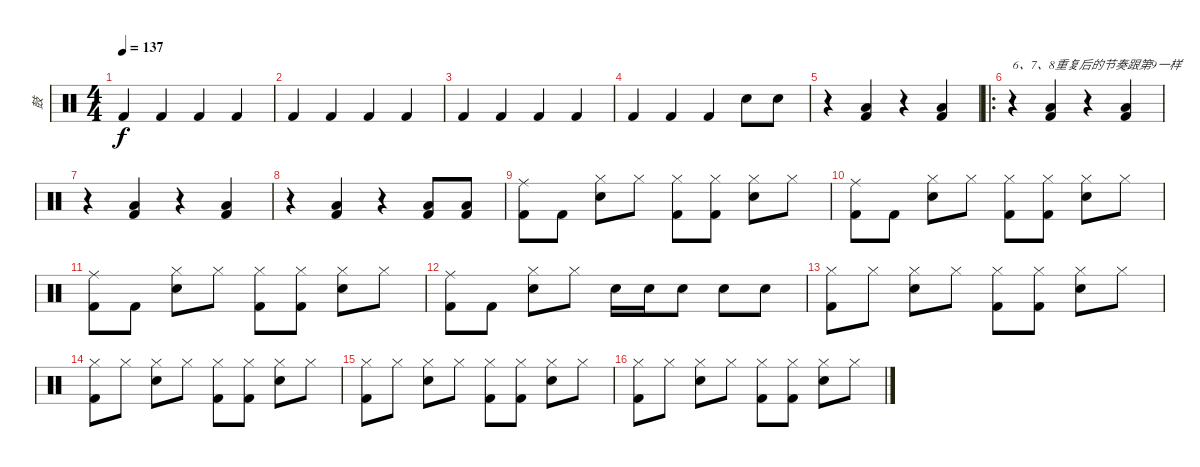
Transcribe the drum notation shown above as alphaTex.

\track ("鼓" "鼓") {instrument percussion}
\staff {score}
\articulation defaults
\ts (4 4)
\tempo 137
\clef neutral
\ks c "Kick (hit) 2".4{dy f} "Kick (hit) 2".4 "Kick (hit) 2".4 "Kick (hit) 2".4
|
"Kick (hit) 2".4 "Kick (hit) 2".4 "Kick (hit) 2".4 "Kick (hit) 2".4 |
"Kick (hit) 2".4 "Kick (hit) 2".4 "Kick (hit) 2".4 "Kick (hit) 2".4 |
"Kick (hit) 2".4 "Kick (hit) 2".4 "Kick (hit) 2".4 "Snare (hit) 2".8 "Snare (hit) 2".8 |
r.4 ("Low Tom (hit)" "Kick (hit) 2").4 r.4 ("Low Tom (hit)" "Kick (hit) 2").4 |
\ro
r.4{txt "6、7、8重复后的节奏跟第9一样"} ("Low Tom (hit)" "Kick (hit) 2").4 r.4 ("Low Tom (hit)" "Kick (hit) 2").4 |
r.4 ("Low Tom (hit)" "Kick (hit) 2").4 r.4 ("Low Tom (hit)" "Kick (hit) 2").4 |
r.4 ("Low Tom (hit)" "Kick (hit) 2").4 r.4 ("Low Tom (hit)" "Kick (hit) 2").8 ("Low Tom (hit)" "Kick (hit) 2").8 |
("Ride (middle)" "Kick (hit) 2").8 "Kick (hit) 2".8 ("Hi-Hat (closed)" "Snare (hit) 2").8 "Hi-Hat (closed)".8 ("Hi-Hat (closed)" "Kick (hit) 2").8 ("Hi-Hat (closed)" "Kick (hit) 2").8 ("Hi-Hat (closed)" "Snare (hit) 2").8 "Hi-Hat (closed)".8 |
("Ride (middle)" "Kick (hit) 2").8 "Kick (hit) 2".8 ("Hi-Hat (closed)" "Snare (hit) 2").8 "Hi-Hat (closed)".8 ("Hi-Hat (closed)" "Kick (hit) 2").8 ("Hi-Hat (closed)" "Kick (hit) 2").8 ("Hi-Hat (closed)" "Snare (hit) 2").8 "Hi-Hat (closed)".8 |
("Ride (middle)" "Kick (hit) 2").8 "Kick (hit) 2".8 ("Hi-Hat (closed)" "Snare (hit) 2").8 "Hi-Hat (closed)".8 ("Hi-Hat (closed)" "Kick (hit) 2").8 ("Hi-Hat (closed)" "Kick (hit) 2").8 ("Hi-Hat (closed)" "Snare (hit) 2").8 "Hi-Hat (closed)".8 |
("Ride (middle)" "Kick (hit) 2").8 "Kick (hit) 2".8 ("Hi-Hat (closed)" "Snare (hit) 2").8 "Hi-Hat (closed)".8 "Snare (hit) 2".16 "Snare (hit) 2".16 "Snare (hit) 2".8 "Snare (hit) 2".8 "Snare (hit) 2".8 |
("Hi-Hat (closed)" "Kick (hit) 2").8 "Hi-Hat (closed)".8 ("Hi-Hat (closed)" "Snare (hit) 2").8 "Hi-Hat (closed)".8 ("Hi-Hat (closed)" "Kick (hit) 2").8 ("Hi-Hat (closed)" "Kick (hit) 2").8 ("Hi-Hat (closed)" "Snare (hit) 2").8 "Hi-Hat (closed)".8 |
("Hi-Hat (closed)" "Kick (hit) 2").8 "Hi-Hat (closed)".8 ("Hi-Hat (closed)" "Snare (hit) 2").8 "Hi-Hat (closed)".8 ("Hi-Hat (closed)" "Kick (hit) 2").8 ("Hi-Hat (closed)" "Kick (hit) 2").8 ("Hi-Hat (closed)" "Snare (hit) 2").8 "Hi-Hat (closed)".8 |
("Hi-Hat (closed)" "Kick (hit) 2").8 "Hi-Hat (closed)".8 ("Hi-Hat (closed)" "Snare (hit) 2").8 "Hi-Hat (closed)".8 ("Hi-Hat (closed)" "Kick (hit) 2").8 ("Hi-Hat (closed)" "Kick (hit) 2").8 ("Hi-Hat (closed)" "Snare (hit) 2").8 "Hi-Hat (closed)".8 |
("Hi-Hat (closed)" "Kick (hit) 2").8 "Hi-Hat (closed)".8 ("Hi-Hat (closed)" "Snare (hit) 2").8 "Hi-Hat (closed)".8 ("Hi-Hat (closed)" "Kick (hit) 2").8 ("Hi-Hat (closed)" "Kick (hit) 2").8 ("Hi-Hat (closed)" "Snare (hit) 2").8 "Hi-Hat (closed)".8
